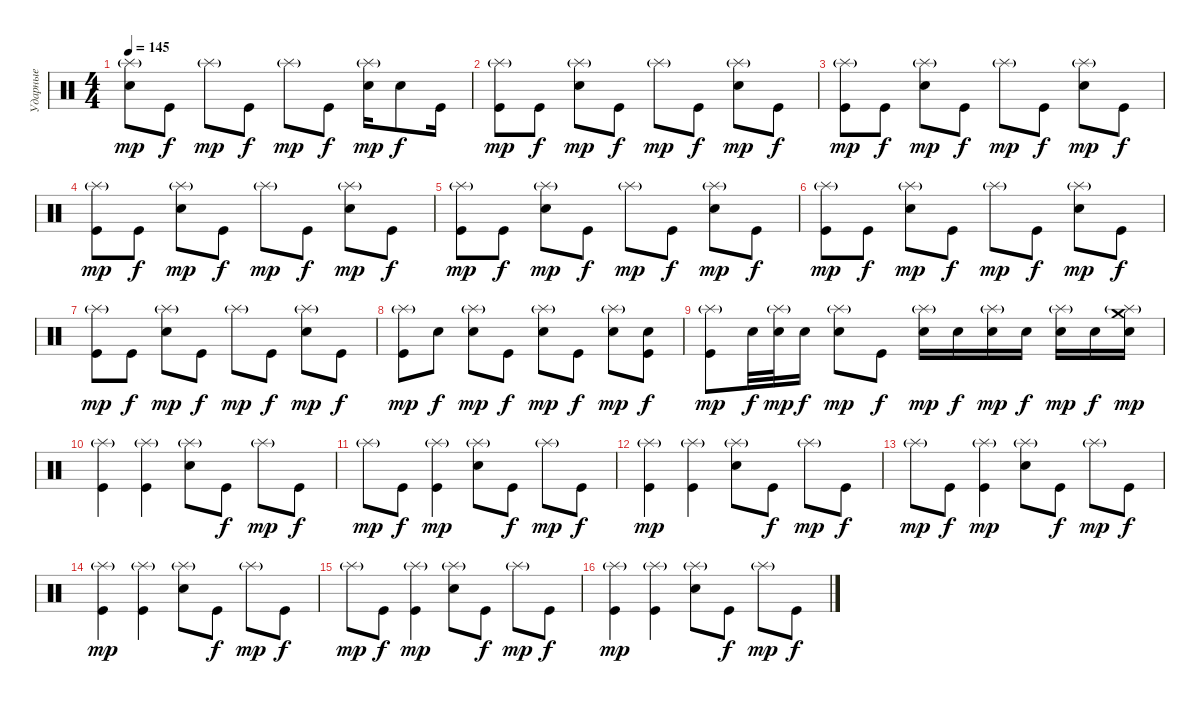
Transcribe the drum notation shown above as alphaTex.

\track ("Ударные" "Ударные") {instrument percussion}
\staff {score}
\articulation defaults
\ts (4 4)
\tempo 145
\clef neutral
\ks c
("Splash (hit)"{g} "Snare (hit) 2").8{dy mp} "Kick (hit)".8{dy f} "Splash (hit)"{g}.8{dy mp} "Kick (hit)".8{dy f} "Splash (hit)"{g}.8{dy mp} "Kick (hit)".8{dy f} ("Splash (hit)"{g} "Snare (hit) 2").16{dy mp} "Snare (hit) 2".8{dy f} "Kick (hit)".16 |
("Splash (hit)"{g} "Kick (hit)").8{dy mp} "Kick (hit)".8{dy f} ("Splash (hit)"{g} "Snare (hit) 2").8{dy mp} "Kick (hit)".8{dy f} "Splash (hit)"{g}.8{dy mp} "Kick (hit)".8{dy f} ("Splash (hit)"{g} "Snare (hit) 2").8{dy mp} "Kick (hit)".8{dy f} |
("Splash (hit)"{g} "Kick (hit)").8{dy mp} "Kick (hit)".8{dy f} ("Splash (hit)"{g} "Snare (hit) 2").8{dy mp} "Kick (hit)".8{dy f} "Splash (hit)"{g}.8{dy mp} "Kick (hit)".8{dy f} ("Splash (hit)"{g} "Snare (hit) 2").8{dy mp} "Kick (hit)".8{dy f} |
("Splash (hit)"{g} "Kick (hit)").8{dy mp} "Kick (hit)".8{dy f} ("Splash (hit)"{g} "Snare (hit) 2").8{dy mp} "Kick (hit)".8{dy f} "Splash (hit)"{g}.8{dy mp} "Kick (hit)".8{dy f} ("Splash (hit)"{g} "Snare (hit) 2").8{dy mp} "Kick (hit)".8{dy f} |
("Splash (hit)"{g} "Kick (hit)").8{dy mp} "Kick (hit)".8{dy f} ("Splash (hit)"{g} "Snare (hit) 2").8{dy mp} "Kick (hit)".8{dy f} "Splash (hit)"{g}.8{dy mp} "Kick (hit)".8{dy f} ("Splash (hit)"{g} "Snare (hit) 2").8{dy mp} "Kick (hit)".8{dy f} |
("Splash (hit)"{g} "Kick (hit)").8{dy mp} "Kick (hit)".8{dy f} ("Splash (hit)"{g} "Snare (hit) 2").8{dy mp} "Kick (hit)".8{dy f} "Splash (hit)"{g}.8{dy mp} "Kick (hit)".8{dy f} ("Splash (hit)"{g} "Snare (hit) 2").8{dy mp} "Kick (hit)".8{dy f} |
("Splash (hit)"{g} "Kick (hit)").8{dy mp} "Kick (hit)".8{dy f} ("Splash (hit)"{g} "Snare (hit) 2").8{dy mp} "Kick (hit)".8{dy f} "Splash (hit)"{g}.8{dy mp} "Kick (hit)".8{dy f} ("Splash (hit)"{g} "Snare (hit) 2").8{dy mp} "Kick (hit)".8{dy f} |
("Splash (hit)"{g} "Kick (hit)").8{dy mp} "Electric Snare (hit)".8{dy f} ("Splash (hit)"{g} "Electric Snare (hit)").8{dy mp} "Kick (hit)".8{dy f} ("Splash (hit)"{g} "Electric Snare (hit)").8{dy mp} "Kick (hit)".8{dy f} ("Splash (hit)"{g} "Snare (hit) 2").8{dy mp} ("Electric Snare (hit)" "Kick (hit)").8{dy f} |
("Splash (hit)"{g} "Kick (hit)").8{dy mp} "Snare (hit) 2".32{dy f} ("Splash (hit)"{g} "Snare (hit) 2").32{dy mp} "Snare (hit) 2".16{dy f} ("Splash (hit)"{g} "Electric Snare (hit)").8{dy mp} "Kick (hit)".8{dy f} ("Splash (hit)"{g} "Snare (hit) 2").16{dy mp} "Snare (hit) 2".16{dy f} ("Splash (hit)"{g} "Snare (hit) 2").16{dy mp} "Snare (hit) 2".16{dy f} ("Splash (hit)"{g} "Electric Snare (hit)").16{dy mp} "Electric Snare (hit)".16{dy f} ("Splash (hit)"{g} "Electric Snare (hit)" "Crash medium (hit)").16{dy mp} |
("Splash (hit)"{g} "Kick (hit)").4 ("Splash (hit)"{g} "Kick (hit)").4 ("Splash (hit)"{g} "Snare (hit) 2").8 "Kick (hit)".8{dy f} "Splash (hit)"{g}.8{dy mp} "Kick (hit)".8{dy f} |
"Splash (hit)"{g}.8{dy mp} "Kick (hit)".8{dy f} ("Splash (hit)"{g} "Kick (hit)").4{dy mp} ("Splash (hit)"{g} "Snare (hit) 2").8 "Kick (hit)".8{dy f} "Splash (hit)"{g}.8{dy mp} "Kick (hit)".8{dy f} |
("Splash (hit)"{g} "Kick (hit)").4{dy mp} ("Splash (hit)"{g} "Kick (hit)").4 ("Splash (hit)"{g} "Snare (hit) 2").8 "Kick (hit)".8{dy f} "Splash (hit)"{g}.8{dy mp} "Kick (hit)".8{dy f} |
"Splash (hit)"{g}.8{dy mp} "Kick (hit)".8{dy f} ("Splash (hit)"{g} "Kick (hit)").4{dy mp} ("Splash (hit)"{g} "Snare (hit) 2").8 "Kick (hit)".8{dy f} "Splash (hit)"{g}.8{dy mp} "Kick (hit)".8{dy f} |
("Splash (hit)"{g} "Kick (hit)").4{dy mp} ("Splash (hit)"{g} "Kick (hit)").4 ("Splash (hit)"{g} "Snare (hit) 2").8 "Kick (hit)".8{dy f} "Splash (hit)"{g}.8{dy mp} "Kick (hit)".8{dy f} |
"Splash (hit)"{g}.8{dy mp} "Kick (hit)".8{dy f} ("Splash (hit)"{g} "Kick (hit)").4{dy mp} ("Splash (hit)"{g} "Snare (hit) 2").8 "Kick (hit)".8{dy f} "Splash (hit)"{g}.8{dy mp} "Kick (hit)".8{dy f} |
("Splash (hit)"{g} "Kick (hit)").4{dy mp} ("Splash (hit)"{g} "Kick (hit)").4 ("Splash (hit)"{g} "Snare (hit) 2").8 "Kick (hit)".8{dy f} "Splash (hit)"{g}.8{dy mp} "Kick (hit)".8{dy f}
